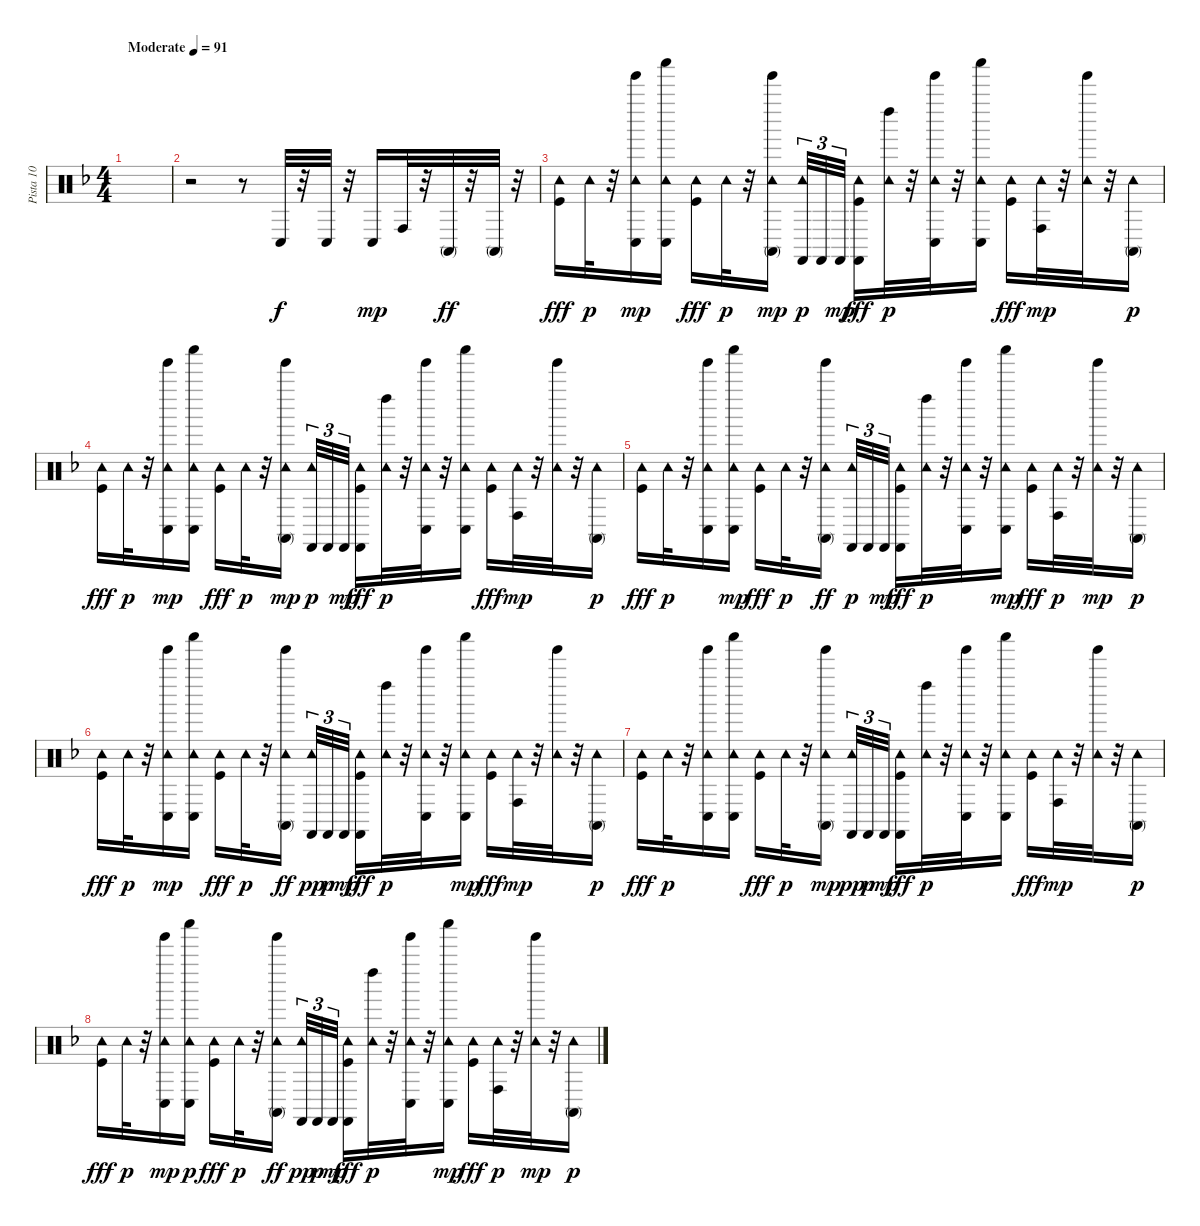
\track ("Pista 10" "Pista 10") {instrument percussion}
\staff {score}
\articulation defaults
\ts (4 4)
\tempo (91 "Moderate")
\clef neutral
\ks f
|
r.2 r.8 "Conga low (hit)".32 r.32 "Conga low (hit)".32 r.32 "Conga low (hit)".16{dy mp} "Conga high (hit)".32 r.32 "Conga high (mute)".32{dy ff} r.32 "Conga high (mute)".32 r.32 |
("Tambourine (hit)" "Kick (hit)").16{dy fff} "Tambourine (hit)".32{dy p} r.32 ("Tambourine (hit)" "Conga low (hit)" "Tinkle Bell (hit)").16{dy mp} ("Conga low (hit)" "Tambourine (hit)" "Shaker (hit)").16 ("Tambourine (hit)" "Kick (hit)").16{dy fff} "Tambourine (hit)".32{dy p} r.32 ("Conga high (mute)" "Tinkle Bell (hit)" "Tambourine (hit)").16{dy mp beam splitsecondary} ("Castanets (hit)" "Tambourine (hit)").32{tu (3 2) dy p} "Castanets (hit)".32{tu (3 2)} "Castanets (hit)".32{tu (3 2) dy mp} ("Kick (hit)" "Tambourine (hit)" "Castanets (hit)").16{dy fff} ("Tambourine (hit)" "Left Maraca (hit)").32{dy p} r.32 ("Conga low (hit)" "Tinkle Bell (hit)" "Tambourine (hit)").32 r.32 ("Conga low (hit)" "Shaker (hit)" "Tambourine (hit)").16 ("Kick (hit)" "Tambourine (hit)").16{dy fff} ("Tambourine (hit)" "Conga high (hit)").32{dy mp} r.32 ("Tambourine (hit)" "Tinkle Bell (hit)").32 r.32 ("Conga high (mute)" "Tambourine (hit)").16{dy p} |
("Kick (hit)" "Tambourine (hit)").16{dy fff} "Tambourine (hit)".32{dy p} r.32 ("Tambourine (hit)" "Conga low (hit)" "Tinkle Bell (hit)").16{dy mp} ("Shaker (hit)" "Tambourine (hit)" "Conga low (hit)").16 ("Tambourine (hit)" "Kick (hit)").16{dy fff} "Tambourine (hit)".32{dy p} r.32 ("Conga high (mute)" "Tambourine (hit)" "Tinkle Bell (hit)").16{dy mp beam splitsecondary} ("Castanets (hit)" "Tambourine (hit)").32{tu (3 2) dy p} "Castanets (hit)".32{tu (3 2)} "Castanets (hit)".32{tu (3 2) dy mp} ("Castanets (hit)" "Kick (hit)" "Tambourine (hit)").16{dy fff} ("Tambourine (hit)" "Left Maraca (hit)").32{dy p} r.32 ("Conga low (hit)" "Tinkle Bell (hit)" "Tambourine (hit)").32 r.32 ("Conga low (hit)" "Shaker (hit)" "Tambourine (hit)").16 ("Kick (hit)" "Tambourine (hit)").16{dy fff} ("Tambourine (hit)" "Conga high (hit)").32{dy mp} r.32 ("Tinkle Bell (hit)" "Tambourine (hit)").32 r.32 ("Conga high (mute)" "Tambourine (hit)").16{dy p} |
("Kick (hit)" "Tambourine (hit)").16{dy fff} "Tambourine (hit)".32{dy p} r.32 ("Tinkle Bell (hit)" "Conga low (hit)" "Tambourine (hit)").16 ("Tambourine (hit)" "Shaker (hit)" "Conga low (hit)").16{dy mp} ("Kick (hit)" "Tambourine (hit)").16{dy fff} "Tambourine (hit)".32{dy p} r.32 ("Tambourine (hit)" "Tinkle Bell (hit)" "Conga high (mute)").16{dy ff beam splitsecondary} ("Castanets (hit)" "Tambourine (hit)").32{tu (3 2) dy p} "Castanets (hit)".32{tu (3 2)} "Castanets (hit)".32{tu (3 2) dy mp} ("Kick (hit)" "Tambourine (hit)" "Castanets (hit)").16{dy fff} ("Tambourine (hit)" "Left Maraca (hit)").32{dy p} r.32 ("Conga low (hit)" "Tambourine (hit)" "Tinkle Bell (hit)").32 r.32 ("Tambourine (hit)" "Conga low (hit)" "Shaker (hit)").16{dy mp} ("Kick (hit)" "Tambourine (hit)").16{dy fff} ("Conga high (hit)" "Tambourine (hit)").32{dy p} r.32 ("Tambourine (hit)" "Tinkle Bell (hit)").32{dy mp} r.32 ("Tambourine (hit)" "Conga high (mute)").16{dy p} |
("Kick (hit)" "Tambourine (hit)").16{dy fff} "Tambourine (hit)".32{dy p} r.32 ("Tambourine (hit)" "Conga low (hit)" "Tinkle Bell (hit)").16{dy mp} ("Shaker (hit)" "Tambourine (hit)" "Conga low (hit)").16 ("Kick (hit)" "Tambourine (hit)").16{dy fff} "Tambourine (hit)".32{dy p} r.32 ("Tinkle Bell (hit)" "Tambourine (hit)" "Conga high (mute)").16{dy ff beam splitsecondary} ("Tambourine (hit)" "Castanets (hit)").32{tu (3 2) dy pp} "Castanets (hit)".32{tu (3 2) dy p} "Castanets (hit)".32{tu (3 2) dy mp} ("Tambourine (hit)" "Castanets (hit)" "Kick (hit)").16{dy fff} ("Tambourine (hit)" "Left Maraca (hit)").32{dy p} r.32 ("Conga low (hit)" "Tinkle Bell (hit)" "Tambourine (hit)").32 r.32 ("Conga low (hit)" "Tambourine (hit)" "Shaker (hit)").16{dy mp} ("Kick (hit)" "Tambourine (hit)").16{dy fff} ("Tambourine (hit)" "Conga high (hit)").32{dy mp} r.32 ("Tambourine (hit)" "Tinkle Bell (hit)").32 r.32 ("Tambourine (hit)" "Conga high (mute)").16{dy p} |
("Tambourine (hit)" "Kick (hit)").16{dy fff} "Tambourine (hit)".32{dy p} r.32 ("Tinkle Bell (hit)" "Conga low (hit)" "Tambourine (hit)").16 ("Shaker (hit)" "Conga low (hit)" "Tambourine (hit)").16 ("Kick (hit)" "Tambourine (hit)").16{dy fff} "Tambourine (hit)".32{dy p} r.32 ("Tambourine (hit)" "Conga high (mute)" "Tinkle Bell (hit)").16{dy mp beam splitsecondary} ("Tambourine (hit)" "Castanets (hit)").32{tu (3 2) dy pp} "Castanets (hit)".32{tu (3 2) dy p} "Castanets (hit)".32{tu (3 2) dy mp} ("Castanets (hit)" "Kick (hit)" "Tambourine (hit)").16{dy fff} ("Left Maraca (hit)" "Tambourine (hit)").32{dy p} r.32 ("Tinkle Bell (hit)" "Conga low (hit)" "Tambourine (hit)").32 r.32 ("Shaker (hit)" "Tambourine (hit)" "Conga low (hit)").16 ("Kick (hit)" "Tambourine (hit)").16{dy fff} ("Tambourine (hit)" "Conga high (hit)").32{dy mp} r.32 ("Tinkle Bell (hit)" "Tambourine (hit)").32 r.32 ("Tambourine (hit)" "Conga high (mute)").16{dy p} |
("Tambourine (hit)" "Kick (hit)").16{dy fff} "Tambourine (hit)".32{dy p} r.32 ("Tambourine (hit)" "Conga low (hit)" "Tinkle Bell (hit)").16{dy mp} ("Conga low (hit)" "Shaker (hit)" "Tambourine (hit)").16{dy p} ("Kick (hit)" "Tambourine (hit)").16{dy fff} "Tambourine (hit)".32{dy p} r.32 ("Tinkle Bell (hit)" "Tambourine (hit)" "Conga high (mute)").16{dy ff beam splitsecondary} ("Tambourine (hit)" "Castanets (hit)").32{tu (3 2) dy pp} "Castanets (hit)".32{tu (3 2) dy p} "Castanets (hit)".32{tu (3 2) dy mp} ("Kick (hit)" "Castanets (hit)" "Tambourine (hit)").16{dy fff} ("Tambourine (hit)" "Left Maraca (hit)").32{dy p} r.32 ("Conga low (hit)" "Tambourine (hit)" "Tinkle Bell (hit)").32 r.32 ("Conga low (hit)" "Tambourine (hit)" "Shaker (hit)").16{dy mp} ("Tambourine (hit)" "Kick (hit)").16{dy fff} ("Conga high (hit)" "Tambourine (hit)").32{dy p} r.32 ("Tambourine (hit)" "Tinkle Bell (hit)").32{dy mp} r.32 ("Tambourine (hit)" "Conga high (mute)").16{dy p}
